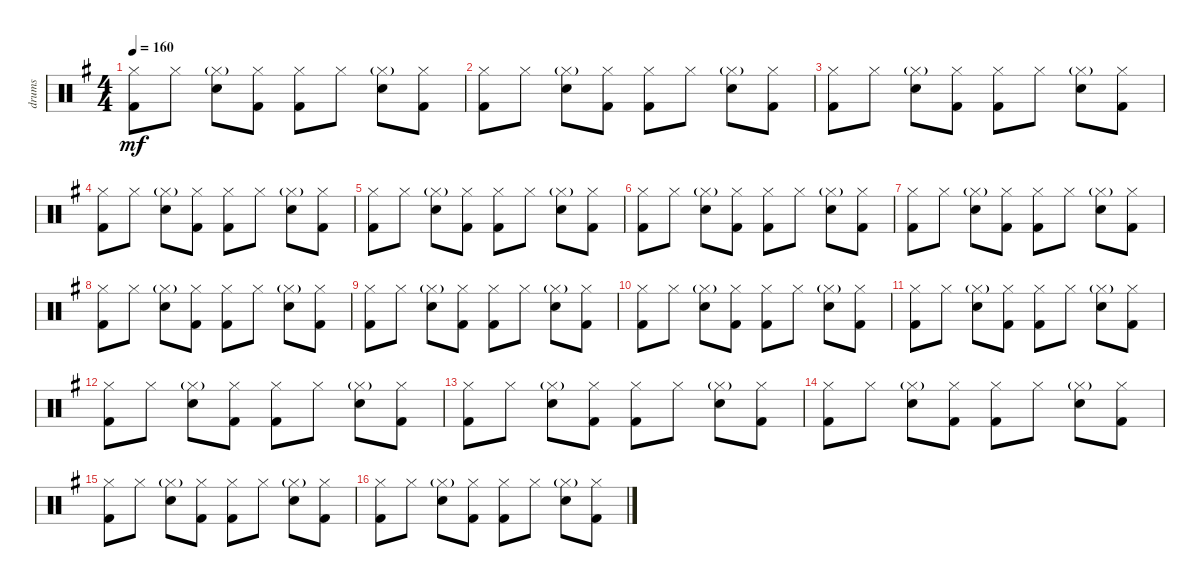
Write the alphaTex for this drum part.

\track ("drums" "drums") {instrument percussion}
\staff {score}
\articulation defaults
\ts (4 4)
\tempo 160
\clef neutral
\ks g
("Hi-Hat (closed)" "Kick (hit) 2").8{dy mf} "Hi-Hat (closed)".8 ("Hi-Hat (closed)"{g} "Snare (hit) 2").8 ("Hi-Hat (closed)" "Kick (hit) 2").8 ("Hi-Hat (closed)" "Kick (hit) 2").8 "Hi-Hat (closed)".8 ("Hi-Hat (closed)"{g} "Snare (hit) 2").8 ("Hi-Hat (closed)" "Kick (hit) 2").8 |
("Hi-Hat (closed)" "Kick (hit) 2").8 "Hi-Hat (closed)".8 ("Hi-Hat (closed)"{g} "Snare (hit) 2").8 ("Hi-Hat (closed)" "Kick (hit) 2").8 ("Hi-Hat (closed)" "Kick (hit) 2").8 "Hi-Hat (closed)".8 ("Hi-Hat (closed)"{g} "Snare (hit) 2").8 ("Hi-Hat (closed)" "Kick (hit) 2").8 |
("Hi-Hat (closed)" "Kick (hit) 2").8 "Hi-Hat (closed)".8 ("Hi-Hat (closed)"{g} "Snare (hit) 2").8 ("Hi-Hat (closed)" "Kick (hit) 2").8 ("Hi-Hat (closed)" "Kick (hit) 2").8 "Hi-Hat (closed)".8 ("Hi-Hat (closed)"{g} "Snare (hit) 2").8 ("Hi-Hat (closed)" "Kick (hit) 2").8 |
("Hi-Hat (closed)" "Kick (hit) 2").8 "Hi-Hat (closed)".8 ("Hi-Hat (closed)"{g} "Snare (hit) 2").8 ("Hi-Hat (closed)" "Kick (hit) 2").8 ("Hi-Hat (closed)" "Kick (hit) 2").8 "Hi-Hat (closed)".8 ("Hi-Hat (closed)"{g} "Snare (hit) 2").8 ("Hi-Hat (closed)" "Kick (hit) 2").8 |
("Hi-Hat (closed)" "Kick (hit) 2").8 "Hi-Hat (closed)".8 ("Hi-Hat (closed)"{g} "Snare (hit) 2").8 ("Hi-Hat (closed)" "Kick (hit) 2").8 ("Hi-Hat (closed)" "Kick (hit) 2").8 "Hi-Hat (closed)".8 ("Hi-Hat (closed)"{g} "Snare (hit) 2").8 ("Hi-Hat (closed)" "Kick (hit) 2").8 |
("Hi-Hat (closed)" "Kick (hit) 2").8 "Hi-Hat (closed)".8 ("Hi-Hat (closed)"{g} "Snare (hit) 2").8 ("Hi-Hat (closed)" "Kick (hit) 2").8 ("Hi-Hat (closed)" "Kick (hit) 2").8 "Hi-Hat (closed)".8 ("Hi-Hat (closed)"{g} "Snare (hit) 2").8 ("Hi-Hat (closed)" "Kick (hit) 2").8 |
("Hi-Hat (closed)" "Kick (hit) 2").8 "Hi-Hat (closed)".8 ("Hi-Hat (closed)"{g} "Snare (hit) 2").8 ("Hi-Hat (closed)" "Kick (hit) 2").8 ("Hi-Hat (closed)" "Kick (hit) 2").8 "Hi-Hat (closed)".8 ("Hi-Hat (closed)"{g} "Snare (hit) 2").8 ("Hi-Hat (closed)" "Kick (hit) 2").8 |
("Hi-Hat (closed)" "Kick (hit) 2").8 "Hi-Hat (closed)".8 ("Hi-Hat (closed)"{g} "Snare (hit) 2").8 ("Hi-Hat (closed)" "Kick (hit) 2").8 ("Hi-Hat (closed)" "Kick (hit) 2").8 "Hi-Hat (closed)".8 ("Hi-Hat (closed)"{g} "Snare (hit) 2").8 ("Hi-Hat (closed)" "Kick (hit) 2").8 |
("Hi-Hat (closed)" "Kick (hit) 2").8 "Hi-Hat (closed)".8 ("Hi-Hat (closed)"{g} "Snare (hit) 2").8 ("Hi-Hat (closed)" "Kick (hit) 2").8 ("Hi-Hat (closed)" "Kick (hit) 2").8 "Hi-Hat (closed)".8 ("Hi-Hat (closed)"{g} "Snare (hit) 2").8 ("Hi-Hat (closed)" "Kick (hit) 2").8 |
("Hi-Hat (closed)" "Kick (hit) 2").8 "Hi-Hat (closed)".8 ("Hi-Hat (closed)"{g} "Snare (hit) 2").8 ("Hi-Hat (closed)" "Kick (hit) 2").8 ("Hi-Hat (closed)" "Kick (hit) 2").8 "Hi-Hat (closed)".8 ("Hi-Hat (closed)"{g} "Snare (hit) 2").8 ("Hi-Hat (closed)" "Kick (hit) 2").8 |
("Hi-Hat (closed)" "Kick (hit) 2").8 "Hi-Hat (closed)".8 ("Hi-Hat (closed)"{g} "Snare (hit) 2").8 ("Hi-Hat (closed)" "Kick (hit) 2").8 ("Hi-Hat (closed)" "Kick (hit) 2").8 "Hi-Hat (closed)".8 ("Hi-Hat (closed)"{g} "Snare (hit) 2").8 ("Hi-Hat (closed)" "Kick (hit) 2").8 |
("Hi-Hat (closed)" "Kick (hit) 2").8 "Hi-Hat (closed)".8 ("Hi-Hat (closed)"{g} "Snare (hit) 2").8 ("Hi-Hat (closed)" "Kick (hit) 2").8 ("Hi-Hat (closed)" "Kick (hit) 2").8 "Hi-Hat (closed)".8 ("Hi-Hat (closed)"{g} "Snare (hit) 2").8 ("Hi-Hat (closed)" "Kick (hit) 2").8 |
("Hi-Hat (closed)" "Kick (hit) 2").8 "Hi-Hat (closed)".8 ("Hi-Hat (closed)"{g} "Snare (hit) 2").8 ("Hi-Hat (closed)" "Kick (hit) 2").8 ("Hi-Hat (closed)" "Kick (hit) 2").8 "Hi-Hat (closed)".8 ("Hi-Hat (closed)"{g} "Snare (hit) 2").8 ("Hi-Hat (closed)" "Kick (hit) 2").8 |
("Hi-Hat (closed)" "Kick (hit) 2").8 "Hi-Hat (closed)".8 ("Hi-Hat (closed)"{g} "Snare (hit) 2").8 ("Hi-Hat (closed)" "Kick (hit) 2").8 ("Hi-Hat (closed)" "Kick (hit) 2").8 "Hi-Hat (closed)".8 ("Hi-Hat (closed)"{g} "Snare (hit) 2").8 ("Hi-Hat (closed)" "Kick (hit) 2").8 |
("Hi-Hat (closed)" "Kick (hit) 2").8 "Hi-Hat (closed)".8 ("Hi-Hat (closed)"{g} "Snare (hit) 2").8 ("Hi-Hat (closed)" "Kick (hit) 2").8 ("Hi-Hat (closed)" "Kick (hit) 2").8 "Hi-Hat (closed)".8 ("Hi-Hat (closed)"{g} "Snare (hit) 2").8 ("Hi-Hat (closed)" "Kick (hit) 2").8 |
("Hi-Hat (closed)" "Kick (hit) 2").8 "Hi-Hat (closed)".8 ("Hi-Hat (closed)"{g} "Snare (hit) 2").8 ("Hi-Hat (closed)" "Kick (hit) 2").8 ("Hi-Hat (closed)" "Kick (hit) 2").8 "Hi-Hat (closed)".8 ("Hi-Hat (closed)"{g} "Snare (hit) 2").8 ("Hi-Hat (closed)" "Kick (hit) 2").8
